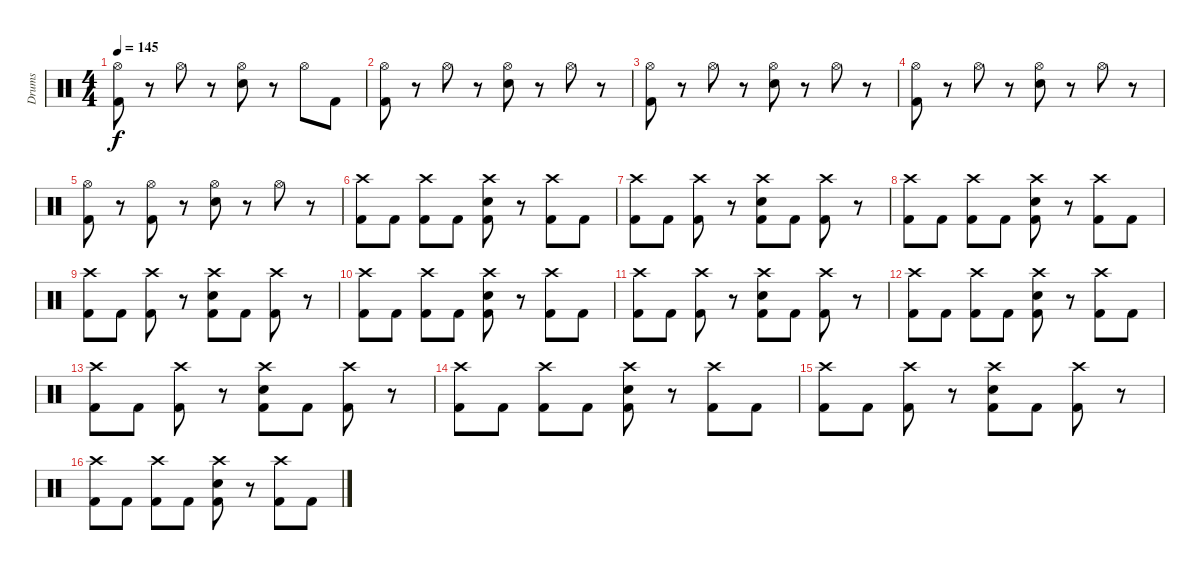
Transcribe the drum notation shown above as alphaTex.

\track ("Drums" "Drums") {instrument percussion}
\staff {score}
\articulation defaults
\ts (4 4)
\tempo 145
\clef neutral
\ks c
("Hi-Hat (open)" "Kick (hit) 2").8{dy f} r.8 "Hi-Hat (open)".8 r.8 ("Hi-Hat (open)" "Electric Snare (hit)").8 r.8 "Hi-Hat (open)".8 "Kick (hit) 2".8 |
("Hi-Hat (open)" "Kick (hit) 2").8 r.8 "Hi-Hat (open)".8 r.8 ("Hi-Hat (open)" "Electric Snare (hit)").8 r.8 "Hi-Hat (open)".8 r.8 |
("Hi-Hat (open)" "Kick (hit) 2").8 r.8 "Hi-Hat (open)".8 r.8 ("Hi-Hat (open)" "Electric Snare (hit)").8 r.8 "Hi-Hat (open)".8 r.8 |
("Hi-Hat (open)" "Kick (hit) 2").8 r.8 "Hi-Hat (open)".8 r.8 ("Hi-Hat (open)" "Electric Snare (hit)").8 r.8 "Hi-Hat (open)".8 r.8 |
("Hi-Hat (open)" "Kick (hit) 2").8 r.8 ("Hi-Hat (open)" "Kick (hit) 2").8 r.8 ("Hi-Hat (open)" "Electric Snare (hit)").8 r.8 "Hi-Hat (open)".8 r.8 |
("Crash high (hit)" "Kick (hit) 2").8 "Kick (hit) 2".8 ("Crash high (hit)" "Kick (hit) 2").8 "Kick (hit) 2".8 ("Crash high (hit)" "Electric Snare (hit)" "Kick (hit) 2").8 r.8 ("Crash high (hit)" "Kick (hit) 2").8 "Kick (hit) 2".8 |
("Crash high (hit)" "Kick (hit) 2").8 "Kick (hit) 2".8 ("Crash high (hit)" "Kick (hit) 2").8 r.8 ("Crash high (hit)" "Electric Snare (hit)" "Kick (hit) 2").8 "Kick (hit) 2".8 ("Crash high (hit)" "Kick (hit) 2").8 r.8 |
("Crash high (hit)" "Kick (hit) 2").8 "Kick (hit) 2".8 ("Crash high (hit)" "Kick (hit) 2").8 "Kick (hit) 2".8 ("Crash high (hit)" "Electric Snare (hit)" "Kick (hit) 2").8 r.8 ("Crash high (hit)" "Kick (hit) 2").8 "Kick (hit) 2".8 |
("Crash high (hit)" "Kick (hit) 2").8 "Kick (hit) 2".8 ("Crash high (hit)" "Kick (hit) 2").8 r.8 ("Crash high (hit)" "Electric Snare (hit)" "Kick (hit) 2").8 "Kick (hit) 2".8 ("Crash high (hit)" "Kick (hit) 2").8 r.8 |
("Crash high (hit)" "Kick (hit) 2").8 "Kick (hit) 2".8 ("Crash high (hit)" "Kick (hit) 2").8 "Kick (hit) 2".8 ("Crash high (hit)" "Electric Snare (hit)" "Kick (hit) 2").8 r.8 ("Crash high (hit)" "Kick (hit) 2").8 "Kick (hit) 2".8 |
("Crash high (hit)" "Kick (hit) 2").8 "Kick (hit) 2".8 ("Crash high (hit)" "Kick (hit) 2").8 r.8 ("Crash high (hit)" "Electric Snare (hit)" "Kick (hit) 2").8 "Kick (hit) 2".8 ("Crash high (hit)" "Kick (hit) 2").8 r.8 |
("Crash high (hit)" "Kick (hit) 2").8 "Kick (hit) 2".8 ("Crash high (hit)" "Kick (hit) 2").8 "Kick (hit) 2".8 ("Crash high (hit)" "Electric Snare (hit)" "Kick (hit) 2").8 r.8 ("Crash high (hit)" "Kick (hit) 2").8 "Kick (hit) 2".8 |
("Crash high (hit)" "Kick (hit) 2").8 "Kick (hit) 2".8 ("Crash high (hit)" "Kick (hit) 2").8 r.8 ("Crash high (hit)" "Electric Snare (hit)" "Kick (hit) 2").8 "Kick (hit) 2".8 ("Crash high (hit)" "Kick (hit) 2").8 r.8 |
("Crash high (hit)" "Kick (hit) 2").8 "Kick (hit) 2".8 ("Crash high (hit)" "Kick (hit) 2").8 "Kick (hit) 2".8 ("Crash high (hit)" "Electric Snare (hit)" "Kick (hit) 2").8 r.8 ("Crash high (hit)" "Kick (hit) 2").8 "Kick (hit) 2".8 |
("Crash high (hit)" "Kick (hit) 2").8 "Kick (hit) 2".8 ("Crash high (hit)" "Kick (hit) 2").8 r.8 ("Crash high (hit)" "Electric Snare (hit)" "Kick (hit) 2").8 "Kick (hit) 2".8 ("Crash high (hit)" "Kick (hit) 2").8 r.8 |
("Crash high (hit)" "Kick (hit) 2").8 "Kick (hit) 2".8 ("Crash high (hit)" "Kick (hit) 2").8 "Kick (hit) 2".8 ("Crash high (hit)" "Electric Snare (hit)" "Kick (hit) 2").8 r.8 ("Crash high (hit)" "Kick (hit) 2").8 "Kick (hit) 2".8
